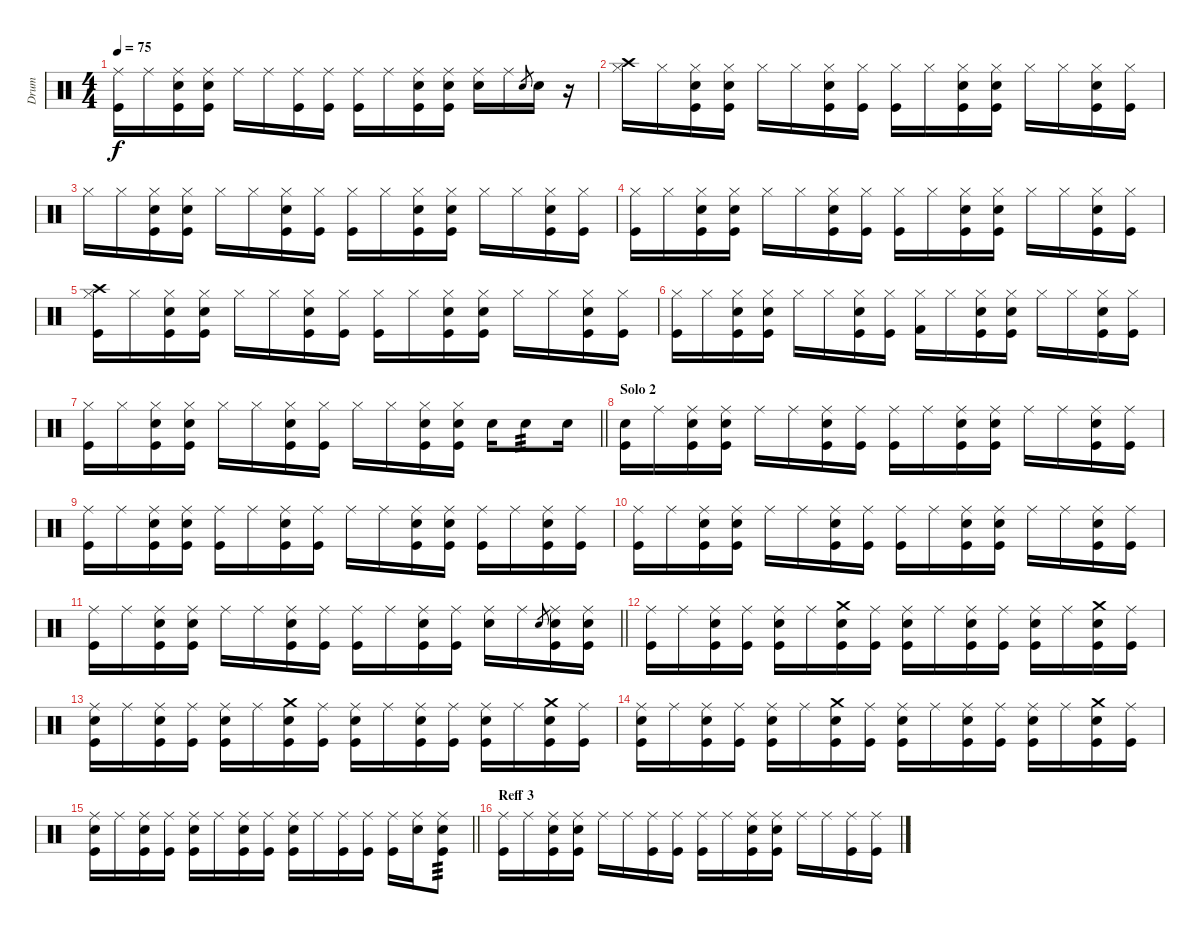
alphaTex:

\track ("Drum" "Drum") {instrument percussion}
\staff {score}
\articulation defaults
\ts (4 4)
\tempo 75
\clef neutral
\ks c
("Ride (middle)" "Kick (hit)").16{dy f} "Ride (middle)".16 ("Ride (middle)" "Electric Snare (hit)" "Kick (hit)").16 ("Ride (middle)" "Electric Snare (hit)" "Kick (hit)").16 "Ride (middle)".16 "Ride (middle)".16 ("Ride (middle)" "Kick (hit)").16 ("Ride (middle)" "Kick (hit)").16 ("Ride (middle)" "Kick (hit)").16 "Ride (middle)".16 ("Ride (middle)" "Electric Snare (hit)" "Kick (hit)").16 ("Ride (middle)" "Electric Snare (hit)" "Kick (hit)").16 ("Ride (middle)" "Electric Snare (hit)").16 "Ride (middle)".16 "Electric Snare (hit)".8{gr} "Electric Snare (hit)".16 r.16 |
("Hi-Hat (closed)" "Crash high (hit)").16 "Hi-Hat (closed)".16 ("Hi-Hat (closed)" "Electric Snare (hit)" "Kick (hit)").16 ("Hi-Hat (closed)" "Electric Snare (hit)" "Kick (hit)").16 "Hi-Hat (closed)".16 "Hi-Hat (closed)".16 ("Hi-Hat (closed)" "Electric Snare (hit)" "Kick (hit)").16 ("Hi-Hat (closed)" "Kick (hit)").16 ("Hi-Hat (closed)" "Kick (hit)").16 "Hi-Hat (closed)".16 ("Hi-Hat (closed)" "Electric Snare (hit)" "Kick (hit)").16 ("Hi-Hat (closed)" "Electric Snare (hit)" "Kick (hit)").16 "Hi-Hat (closed)".16 "Hi-Hat (closed)".16 ("Hi-Hat (closed)" "Electric Snare (hit)" "Kick (hit)").16 ("Hi-Hat (closed)" "Kick (hit)").16 |
"Hi-Hat (closed)".16 "Hi-Hat (closed)".16 ("Hi-Hat (closed)" "Electric Snare (hit)" "Kick (hit)").16 ("Hi-Hat (closed)" "Electric Snare (hit)" "Kick (hit)").16 "Hi-Hat (closed)".16 "Hi-Hat (closed)".16 ("Hi-Hat (closed)" "Electric Snare (hit)" "Kick (hit)").16 ("Hi-Hat (closed)" "Kick (hit)").16 ("Hi-Hat (closed)" "Kick (hit)").16 "Hi-Hat (closed)".16 ("Hi-Hat (closed)" "Electric Snare (hit)" "Kick (hit)").16 ("Hi-Hat (closed)" "Electric Snare (hit)" "Kick (hit)").16 "Hi-Hat (closed)".16 "Hi-Hat (closed)".16 ("Hi-Hat (closed)" "Electric Snare (hit)" "Kick (hit)").16 ("Hi-Hat (closed)" "Kick (hit)").16 |
("Hi-Hat (closed)" "Kick (hit)").16 "Hi-Hat (closed)".16 ("Hi-Hat (closed)" "Electric Snare (hit)" "Kick (hit)").16 ("Hi-Hat (closed)" "Electric Snare (hit)" "Kick (hit)").16 "Hi-Hat (closed)".16 "Hi-Hat (closed)".16 ("Hi-Hat (closed)" "Electric Snare (hit)" "Kick (hit)").16 ("Hi-Hat (closed)" "Kick (hit)").16 ("Hi-Hat (closed)" "Kick (hit)").16 "Hi-Hat (closed)".16 ("Hi-Hat (closed)" "Electric Snare (hit)" "Kick (hit)").16 ("Hi-Hat (closed)" "Electric Snare (hit)" "Kick (hit)").16 "Hi-Hat (closed)".16 "Hi-Hat (closed)".16 ("Hi-Hat (closed)" "Electric Snare (hit)" "Kick (hit)").16 ("Hi-Hat (closed)" "Kick (hit)").16 |
("Hi-Hat (closed)" "Crash high (hit)" "Kick (hit)").16 "Hi-Hat (closed)".16 ("Hi-Hat (closed)" "Electric Snare (hit)" "Kick (hit)").16 ("Hi-Hat (closed)" "Electric Snare (hit)" "Kick (hit)").16 "Hi-Hat (closed)".16 "Hi-Hat (closed)".16 ("Hi-Hat (closed)" "Electric Snare (hit)" "Kick (hit)").16 ("Hi-Hat (closed)" "Kick (hit)").16 ("Hi-Hat (closed)" "Kick (hit)").16 "Hi-Hat (closed)".16 ("Hi-Hat (closed)" "Electric Snare (hit)" "Kick (hit)").16 ("Hi-Hat (closed)" "Electric Snare (hit)" "Kick (hit)").16 "Hi-Hat (closed)".16 "Hi-Hat (closed)".16 ("Hi-Hat (closed)" "Electric Snare (hit)" "Kick (hit)").16 ("Hi-Hat (closed)" "Kick (hit)").16 |
("Hi-Hat (closed)" "Kick (hit)").16 "Hi-Hat (closed)".16 ("Hi-Hat (closed)" "Electric Snare (hit)" "Kick (hit)").16 ("Hi-Hat (closed)" "Electric Snare (hit)" "Kick (hit)").16 "Hi-Hat (closed)".16 "Hi-Hat (closed)".16 ("Hi-Hat (closed)" "Electric Snare (hit)" "Kick (hit)").16 ("Hi-Hat (closed)" "Kick (hit)").16 ("Hi-Hat (closed)" "Kick (hit) 2").16 "Hi-Hat (closed)".16 ("Hi-Hat (closed)" "Electric Snare (hit)" "Kick (hit)").16 ("Hi-Hat (closed)" "Electric Snare (hit)" "Kick (hit)").16 "Hi-Hat (closed)".16 "Hi-Hat (closed)".16 ("Hi-Hat (closed)" "Electric Snare (hit)" "Kick (hit)").16 ("Hi-Hat (closed)" "Kick (hit)").16 |
\barLineRight lightlight
("Hi-Hat (closed)" "Kick (hit)").16 "Hi-Hat (closed)".16 ("Hi-Hat (closed)" "Electric Snare (hit)" "Kick (hit)").16 ("Hi-Hat (closed)" "Electric Snare (hit)" "Kick (hit)").16 "Hi-Hat (closed)".16 "Hi-Hat (closed)".16 ("Hi-Hat (closed)" "Electric Snare (hit)" "Kick (hit)").16 ("Hi-Hat (closed)" "Kick (hit)").16 "Hi-Hat (closed)".16 "Hi-Hat (closed)".16 ("Hi-Hat (closed)" "Electric Snare (hit)" "Kick (hit)").16 ("Hi-Hat (closed)" "Electric Snare (hit)" "Kick (hit)").16 "Electric Snare (hit)".16 "Electric Snare (hit)".8{tp 3} "Electric Snare (hit)".16 |
\section ("" "Solo 2")
("Electric Snare (hit)" "Kick (hit)").16 "Ride (middle)".16 ("Ride (middle)" "Electric Snare (hit)" "Kick (hit)").16 ("Ride (middle)" "Electric Snare (hit)" "Kick (hit)").16 "Ride (middle)".16 "Ride (middle)".16 ("Ride (middle)" "Electric Snare (hit)" "Kick (hit)").16 ("Ride (middle)" "Kick (hit)").16 ("Ride (middle)" "Kick (hit)").16 "Ride (middle)".16 ("Ride (middle)" "Electric Snare (hit)" "Kick (hit)").16 ("Ride (middle)" "Electric Snare (hit)" "Kick (hit)").16 "Ride (middle)".16 "Ride (middle)".16 ("Ride (middle)" "Electric Snare (hit)" "Kick (hit)").16 ("Ride (middle)" "Kick (hit)").16 |
("Ride (middle)" "Kick (hit)").16 "Ride (middle)".16 ("Ride (middle)" "Electric Snare (hit)" "Kick (hit)").16 ("Ride (middle)" "Electric Snare (hit)" "Kick (hit)").16 ("Ride (middle)" "Kick (hit)").16 "Ride (middle)".16 ("Ride (middle)" "Electric Snare (hit)" "Kick (hit)").16 ("Ride (middle)" "Kick (hit)").16 "Ride (middle)".16 "Ride (middle)".16 ("Ride (middle)" "Electric Snare (hit)" "Kick (hit)").16 ("Ride (middle)" "Electric Snare (hit)" "Kick (hit)").16 ("Ride (middle)" "Kick (hit)").16 "Ride (middle)".16 ("Ride (middle)" "Electric Snare (hit)" "Kick (hit)").16 ("Ride (middle)" "Kick (hit)").16 |
("Ride (middle)" "Kick (hit)").16 "Ride (middle)".16 ("Ride (middle)" "Electric Snare (hit)" "Kick (hit)").16 ("Ride (middle)" "Electric Snare (hit)" "Kick (hit)").16 "Ride (middle)".16 "Ride (middle)".16 ("Ride (middle)" "Electric Snare (hit)" "Kick (hit)").16 ("Ride (middle)" "Kick (hit)").16 ("Ride (middle)" "Kick (hit)").16 "Ride (middle)".16 ("Ride (middle)" "Electric Snare (hit)" "Kick (hit)").16 ("Ride (middle)" "Electric Snare (hit)" "Kick (hit)").16 "Ride (middle)".16 "Ride (middle)".16 ("Ride (middle)" "Electric Snare (hit)" "Kick (hit)").16 ("Ride (middle)" "Kick (hit)").16 |
\barLineRight lightlight
("Ride (middle)" "Kick (hit)").16 "Ride (middle)".16 ("Ride (middle)" "Electric Snare (hit)" "Kick (hit)").16 ("Ride (middle)" "Electric Snare (hit)" "Kick (hit)").16 "Ride (middle)".16 "Ride (middle)".16 ("Ride (middle)" "Electric Snare (hit)" "Kick (hit)").16 ("Ride (middle)" "Kick (hit)").16 ("Ride (middle)" "Kick (hit)").16 "Ride (middle)".16 ("Ride (middle)" "Electric Snare (hit)" "Kick (hit)").16 ("Ride (middle)" "Kick (hit)").16 ("Ride (middle)" "Electric Snare (hit)").16 "Ride (middle)".16 "Electric Snare (hit)".8{gr} ("Ride (middle)" "Electric Snare (hit)" "Kick (hit)").16 ("Ride (middle)" "Electric Snare (hit)" "Kick (hit)").16 |
("Ride (middle)" "Kick (hit)").16 "Ride (middle)".16 ("Ride (middle)" "Electric Snare (hit)" "Kick (hit)").16 ("Ride (middle)" "Kick (hit)").16 ("Ride (middle)" "Electric Snare (hit)" "Kick (hit)").16 "Ride (middle)".16 ("Electric Snare (hit)" "Crash medium (hit)" "Kick (hit)").16 ("Ride (middle)" "Kick (hit)").16 ("Ride (middle)" "Electric Snare (hit)" "Kick (hit)").16 "Ride (middle)".16 ("Ride (middle)" "Electric Snare (hit)" "Kick (hit)").16 ("Ride (middle)" "Kick (hit)").16 ("Ride (middle)" "Electric Snare (hit)" "Kick (hit)").16 "Ride (middle)".16 ("Electric Snare (hit)" "Crash medium (hit)" "Kick (hit)").16 ("Ride (middle)" "Kick (hit)").16 |
("Ride (middle)" "Electric Snare (hit)" "Kick (hit)").16 "Ride (middle)".16 ("Ride (middle)" "Electric Snare (hit)" "Kick (hit)").16 ("Ride (middle)" "Kick (hit)").16 ("Ride (middle)" "Electric Snare (hit)" "Kick (hit)").16 "Ride (middle)".16 ("Electric Snare (hit)" "Crash medium (hit)" "Kick (hit)").16 ("Ride (middle)" "Kick (hit)").16 ("Ride (middle)" "Electric Snare (hit)" "Kick (hit)").16 "Ride (middle)".16 ("Ride (middle)" "Electric Snare (hit)" "Kick (hit)").16 ("Ride (middle)" "Kick (hit)").16 ("Ride (middle)" "Electric Snare (hit)" "Kick (hit)").16 "Ride (middle)".16 ("Electric Snare (hit)" "Crash medium (hit)" "Kick (hit)").16 ("Ride (middle)" "Kick (hit)").16 |
("Ride (middle)" "Electric Snare (hit)" "Kick (hit)").16 "Ride (middle)".16 ("Ride (middle)" "Electric Snare (hit)" "Kick (hit)").16 ("Ride (middle)" "Kick (hit)").16 ("Ride (middle)" "Electric Snare (hit)" "Kick (hit)").16 "Ride (middle)".16 ("Electric Snare (hit)" "Crash medium (hit)" "Kick (hit)").16 ("Ride (middle)" "Kick (hit)").16 ("Ride (middle)" "Electric Snare (hit)" "Kick (hit)").16 "Ride (middle)".16 ("Ride (middle)" "Electric Snare (hit)" "Kick (hit)").16 ("Ride (middle)" "Kick (hit)").16 ("Ride (middle)" "Electric Snare (hit)" "Kick (hit)").16 "Ride (middle)".16 ("Electric Snare (hit)" "Crash medium (hit)" "Kick (hit)").16 ("Ride (middle)" "Kick (hit)").16 |
\barLineRight lightlight
("Ride (middle)" "Electric Snare (hit)" "Kick (hit)").16 "Ride (middle)".16 ("Ride (middle)" "Electric Snare (hit)" "Kick (hit)").16 ("Ride (middle)" "Kick (hit)").16 ("Ride (middle)" "Electric Snare (hit)" "Kick (hit)").16 "Ride (middle)".16 ("Ride (middle)" "Electric Snare (hit)" "Kick (hit)").16 ("Ride (middle)" "Kick (hit)").16 ("Ride (middle)" "Electric Snare (hit)" "Kick (hit)").16 "Ride (middle)".16 ("Ride (middle)" "Kick (hit)").16 ("Ride (middle)" "Kick (hit)").16 ("Ride (middle)" "Kick (hit)").16 ("Ride (middle)" "Electric Snare (hit)").16 ("Ride (middle)" "Electric Snare (hit)" "Kick (hit)").8{tp 3} |
\section ("" "Reff 3")
("Ride (middle)" "Kick (hit)").16 "Ride (middle)".16 ("Ride (middle)" "Electric Snare (hit)" "Kick (hit)").16 ("Ride (middle)" "Electric Snare (hit)" "Kick (hit)").16 "Ride (middle)".16 "Ride (middle)".16 ("Ride (middle)" "Kick (hit)").16 ("Ride (middle)" "Kick (hit)").16 ("Ride (middle)" "Kick (hit)").16 "Ride (middle)".16 ("Ride (middle)" "Electric Snare (hit)" "Kick (hit)").16 ("Ride (middle)" "Electric Snare (hit)" "Kick (hit)").16 "Ride (middle)".16 "Ride (middle)".16 ("Ride (middle)" "Kick (hit)").16 ("Ride (middle)" "Kick (hit)").16
